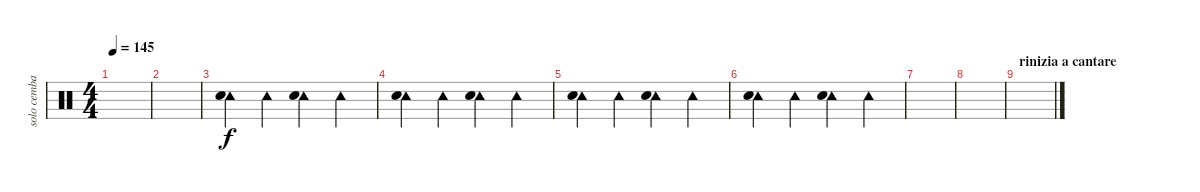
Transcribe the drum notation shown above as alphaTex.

\track ("solo cembalo" "solo cemba") {instrument percussion}
\staff {score}
\articulation defaults
\ts (4 4)
\tempo 145
\clef neutral
\ks c
|
|
("Tambourine (hit)" "Hand Clap (hit)").4 "Tambourine (hit)".4 ("Tambourine (hit)" "Hand Clap (hit)").4 "Tambourine (hit)".4 |
("Tambourine (hit)" "Hand Clap (hit)").4 "Tambourine (hit)".4 ("Tambourine (hit)" "Hand Clap (hit)").4 "Tambourine (hit)".4 |
("Tambourine (hit)" "Hand Clap (hit)").4 "Tambourine (hit)".4 ("Tambourine (hit)" "Hand Clap (hit)").4 "Tambourine (hit)".4 |
("Tambourine (hit)" "Hand Clap (hit)").4 "Tambourine (hit)".4 ("Tambourine (hit)" "Hand Clap (hit)").4 "Tambourine (hit)".4 |
\section ("" "")
|
|
\section ("" "rinizia a cantare")
